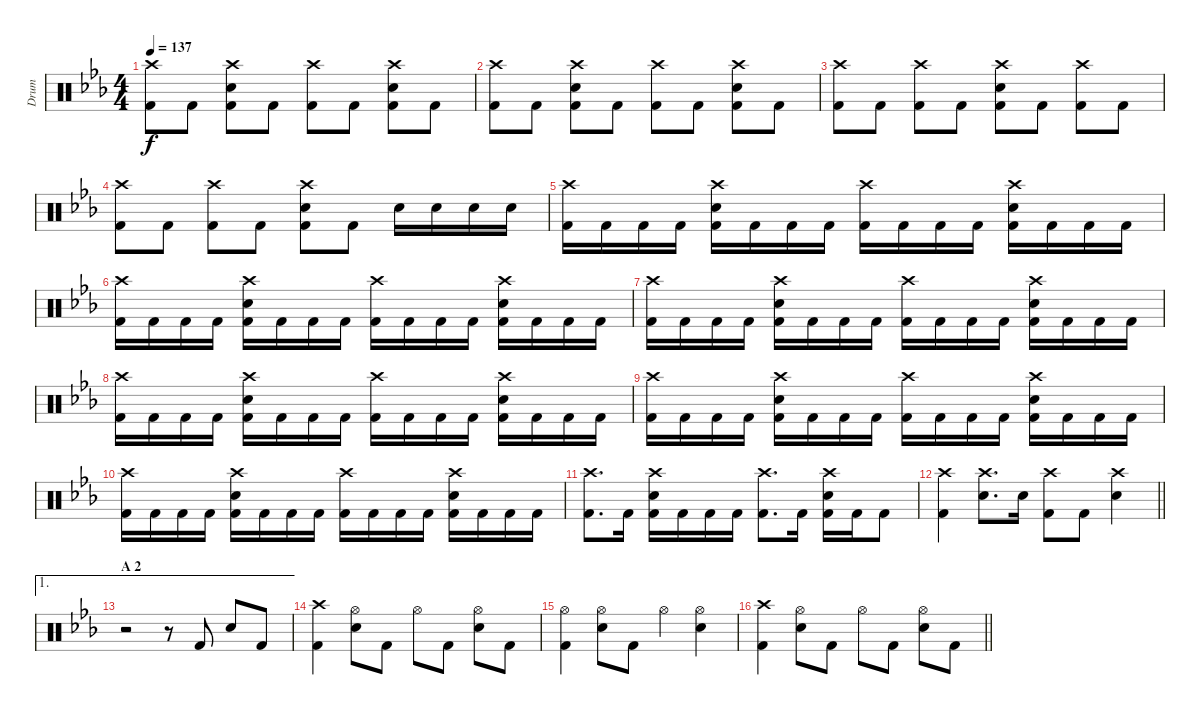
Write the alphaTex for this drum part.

\track ("Drum" "Drum") {instrument percussion}
\staff {score}
\articulation defaults
\ts (4 4)
\tempo 137
\clef neutral
\ks eb
("Crash high (hit)" "Kick (hit) 2").8{dy f} "Kick (hit) 2".8 ("Crash high (hit)" "Snare (hit) 2" "Kick (hit) 2").8 "Kick (hit) 2".8 ("Crash high (hit)" "Kick (hit) 2").8 "Kick (hit) 2".8 ("Crash high (hit)" "Snare (hit) 2" "Kick (hit) 2").8 "Kick (hit) 2".8 |
("Crash high (hit)" "Kick (hit) 2").8 "Kick (hit) 2".8 ("Crash high (hit)" "Snare (hit) 2" "Kick (hit) 2").8 "Kick (hit) 2".8 ("Crash high (hit)" "Kick (hit) 2").8 "Kick (hit) 2".8 ("Crash high (hit)" "Snare (hit) 2" "Kick (hit) 2").8 "Kick (hit) 2".8 |
("Crash high (hit)" "Kick (hit) 2").8 "Kick (hit) 2".8 ("Crash high (hit)" "Kick (hit) 2").8 "Kick (hit) 2".8 ("Crash high (hit)" "Snare (hit) 2" "Kick (hit) 2").8 "Kick (hit) 2".8 ("Crash high (hit)" "Kick (hit) 2").8 "Kick (hit) 2".8 |
("Crash high (hit)" "Kick (hit) 2").8 "Kick (hit) 2".8 ("Crash high (hit)" "Kick (hit) 2").8 "Kick (hit) 2".8 ("Crash high (hit)" "Snare (hit) 2" "Kick (hit) 2").8 "Kick (hit) 2".8 "Snare (hit) 2".16 "Snare (hit) 2".16 "Snare (hit) 2".16 "Snare (hit) 2".16 |
("Crash high (hit)" "Kick (hit) 2").16 "Kick (hit) 2".16 "Kick (hit) 2".16 "Kick (hit) 2".16 ("Crash high (hit)" "Snare (hit) 2" "Kick (hit) 2").16 "Kick (hit) 2".16 "Kick (hit) 2".16 "Kick (hit) 2".16 ("Crash high (hit)" "Kick (hit) 2").16 "Kick (hit) 2".16 "Kick (hit) 2".16 "Kick (hit) 2".16 ("Crash high (hit)" "Snare (hit) 2" "Kick (hit) 2").16 "Kick (hit) 2".16 "Kick (hit) 2".16 "Kick (hit) 2".16 |
("Crash high (hit)" "Kick (hit) 2").16 "Kick (hit) 2".16 "Kick (hit) 2".16 "Kick (hit) 2".16 ("Crash high (hit)" "Snare (hit) 2" "Kick (hit) 2").16 "Kick (hit) 2".16 "Kick (hit) 2".16 "Kick (hit) 2".16 ("Crash high (hit)" "Kick (hit) 2").16 "Kick (hit) 2".16 "Kick (hit) 2".16 "Kick (hit) 2".16 ("Crash high (hit)" "Snare (hit) 2" "Kick (hit) 2").16 "Kick (hit) 2".16 "Kick (hit) 2".16 "Kick (hit) 2".16 |
("Crash high (hit)" "Kick (hit) 2").16 "Kick (hit) 2".16 "Kick (hit) 2".16 "Kick (hit) 2".16 ("Crash high (hit)" "Snare (hit) 2" "Kick (hit) 2").16 "Kick (hit) 2".16 "Kick (hit) 2".16 "Kick (hit) 2".16 ("Crash high (hit)" "Kick (hit) 2").16 "Kick (hit) 2".16 "Kick (hit) 2".16 "Kick (hit) 2".16 ("Crash high (hit)" "Snare (hit) 2" "Kick (hit) 2").16 "Kick (hit) 2".16 "Kick (hit) 2".16 "Kick (hit) 2".16 |
("Crash high (hit)" "Kick (hit) 2").16 "Kick (hit) 2".16 "Kick (hit) 2".16 "Kick (hit) 2".16 ("Crash high (hit)" "Snare (hit) 2" "Kick (hit) 2").16 "Kick (hit) 2".16 "Kick (hit) 2".16 "Kick (hit) 2".16 ("Crash high (hit)" "Kick (hit) 2").16 "Kick (hit) 2".16 "Kick (hit) 2".16 "Kick (hit) 2".16 ("Crash high (hit)" "Snare (hit) 2" "Kick (hit) 2").16 "Kick (hit) 2".16 "Kick (hit) 2".16 "Kick (hit) 2".16 |
("Crash high (hit)" "Kick (hit) 2").16 "Kick (hit) 2".16 "Kick (hit) 2".16 "Kick (hit) 2".16 ("Crash high (hit)" "Snare (hit) 2" "Kick (hit) 2").16 "Kick (hit) 2".16 "Kick (hit) 2".16 "Kick (hit) 2".16 ("Crash high (hit)" "Kick (hit) 2").16 "Kick (hit) 2".16 "Kick (hit) 2".16 "Kick (hit) 2".16 ("Crash high (hit)" "Snare (hit) 2" "Kick (hit) 2").16 "Kick (hit) 2".16 "Kick (hit) 2".16 "Kick (hit) 2".16 |
("Crash high (hit)" "Kick (hit) 2").16 "Kick (hit) 2".16 "Kick (hit) 2".16 "Kick (hit) 2".16 ("Crash high (hit)" "Snare (hit) 2" "Kick (hit) 2").16 "Kick (hit) 2".16 "Kick (hit) 2".16 "Kick (hit) 2".16 ("Crash high (hit)" "Kick (hit) 2").16 "Kick (hit) 2".16 "Kick (hit) 2".16 "Kick (hit) 2".16 ("Crash high (hit)" "Snare (hit) 2" "Kick (hit) 2").16 "Kick (hit) 2".16 "Kick (hit) 2".16 "Kick (hit) 2".16 |
("Crash high (hit)" "Kick (hit) 2").8{d} "Kick (hit) 2".16 ("Crash high (hit)" "Snare (hit) 2" "Kick (hit) 2").16 "Kick (hit) 2".16 "Kick (hit) 2".16 "Kick (hit) 2".16 ("Crash high (hit)" "Kick (hit) 2").8{d} "Kick (hit) 2".16 ("Crash high (hit)" "Snare (hit) 2" "Kick (hit) 2").16 "Kick (hit) 2".16 "Kick (hit) 2".8 |
\barLineRight lightlight
("Crash high (hit)" "Kick (hit) 2").4 ("Crash high (hit)" "Snare (hit) 2").8{d} "Snare (hit) 2".16 ("Crash high (hit)" "Kick (hit) 2").8 "Kick (hit) 2".8 ("Crash high (hit)" "Snare (hit) 2").4 |
\ae 1
\section ("" "A 2")
r.2 r.8 "Kick (hit) 2".8 "Snare (hit) 2".8 "Kick (hit) 2".8 |
("Crash high (hit)" "Kick (hit) 2").4 ("Hi-Hat (open)" "Snare (hit) 2").8 "Kick (hit) 2".8 "Hi-Hat (open)".8 "Kick (hit) 2".8 ("Hi-Hat (open)" "Snare (hit) 2").8 "Kick (hit) 2".8 |
("Hi-Hat (open)" "Kick (hit) 2").4 ("Hi-Hat (open)" "Snare (hit) 2").8 "Kick (hit) 2".8 "Hi-Hat (open)".4 ("Hi-Hat (open)" "Snare (hit) 2").4 |
\barLineRight lightlight
("Crash high (hit)" "Kick (hit) 2").4 ("Hi-Hat (open)" "Snare (hit) 2").8 "Kick (hit) 2".8 "Hi-Hat (open)".8 "Kick (hit) 2".8 ("Hi-Hat (open)" "Snare (hit) 2").8 "Kick (hit) 2".8
